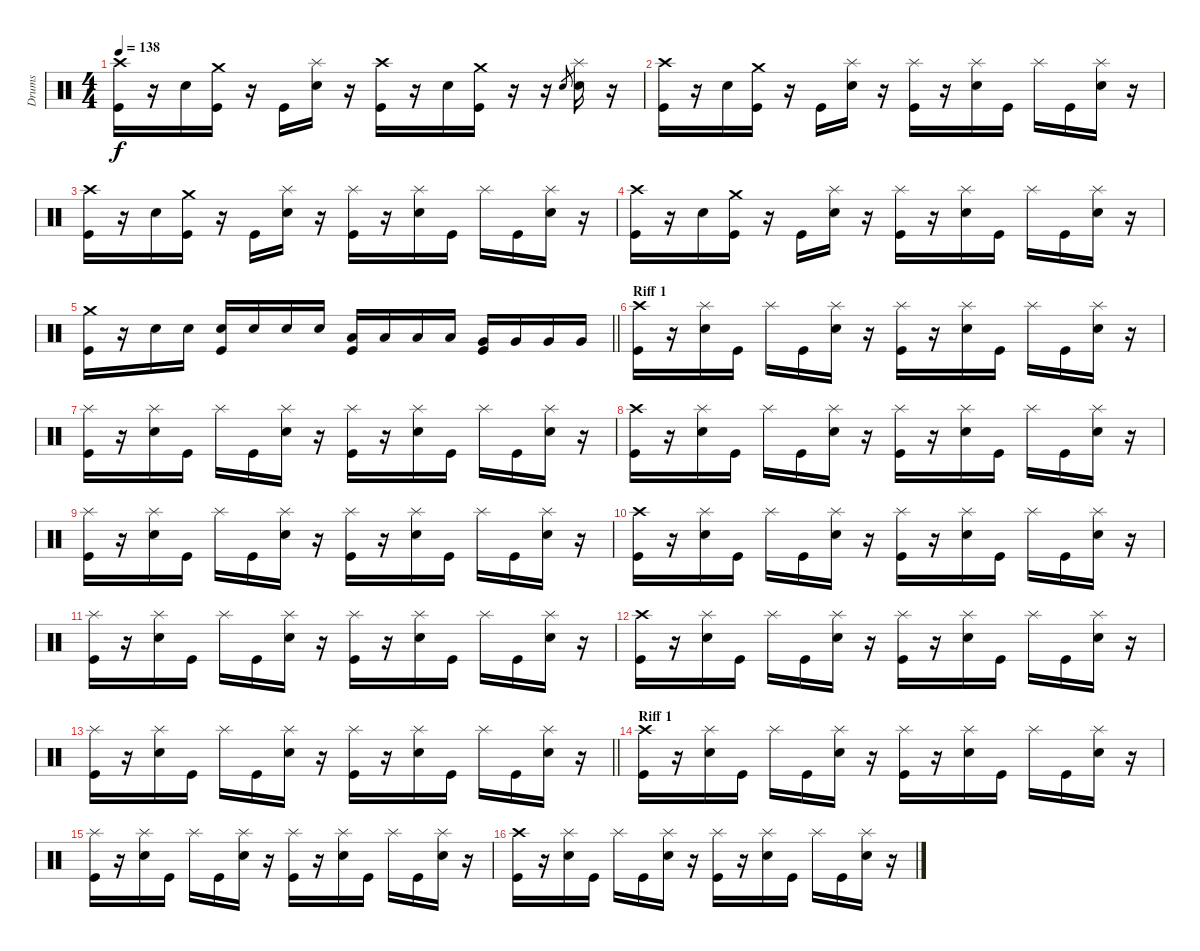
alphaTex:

\track ("Drums" "Drums") {instrument percussion}
\staff {score}
\articulation defaults
\ts (4 4)
\tempo 138
\clef neutral
\ks c
("Crash high (hit)" "Kick (hit)").16{dy f} r.16 "Electric Snare (hit)".16 ("Crash medium (hit)" "Kick (hit)").16 r.16 "Kick (hit)".16 ("Splash (hit)" "Electric Snare (hit)").16 r.16 ("Crash high (hit)" "Kick (hit)").16 r.16 "Electric Snare (hit)".16 ("Crash medium (hit)" "Kick (hit)").16 r.16 r.16 "Electric Snare (hit)".8{gr} ("Splash (hit)" "Electric Snare (hit)").16 r.16 |
("Crash high (hit)" "Kick (hit)").16 r.16 "Electric Snare (hit)".16 ("Crash medium (hit)" "Kick (hit)").16 r.16 "Kick (hit)".16 ("Splash (hit)" "Electric Snare (hit)").16 r.16 ("Splash (hit)" "Kick (hit)").16 r.16 ("Splash (hit)" "Electric Snare (hit)").16 "Kick (hit)".16 "Splash (hit)".16 "Kick (hit)".16 ("Splash (hit)" "Electric Snare (hit)").16 r.16 |
("Crash high (hit)" "Kick (hit)").16 r.16 "Electric Snare (hit)".16 ("Crash medium (hit)" "Kick (hit)").16 r.16 "Kick (hit)".16 ("Splash (hit)" "Electric Snare (hit)").16 r.16 ("Splash (hit)" "Kick (hit)").16 r.16 ("Splash (hit)" "Electric Snare (hit)").16 "Kick (hit)".16 "Splash (hit)".16 "Kick (hit)".16 ("Splash (hit)" "Electric Snare (hit)").16 r.16 |
("Crash high (hit)" "Kick (hit)").16 r.16 "Electric Snare (hit)".16 ("Crash medium (hit)" "Kick (hit)").16 r.16 "Kick (hit)".16 ("Splash (hit)" "Electric Snare (hit)").16 r.16 ("Splash (hit)" "Kick (hit)").16 r.16 ("Splash (hit)" "Electric Snare (hit)").16 "Kick (hit)".16 "Splash (hit)".16 "Kick (hit)".16 ("Splash (hit)" "Electric Snare (hit)").16 r.16 |
\barLineRight lightlight
("Crash medium (hit)" "Kick (hit)").16 r.16 "Electric Snare (hit)".16 "Electric Snare (hit)".16 ("Electric Snare (hit)" "Kick (hit)").16 "Electric Snare (hit)".16 "Electric Snare (hit)".16 "Electric Snare (hit)".16 ("Low Tom (hit)" "Kick (hit)").16 "Low Tom (hit)".16 "Low Tom (hit)".16 "Low Tom (hit)".16 ("Very Low Tom (hit)" "Kick (hit)").16 "Very Low Tom (hit)".16 "Very Low Tom (hit)".16 "Very Low Tom (hit)".16 |
\section ("" "Riff 1")
("Crash high (hit)" "Kick (hit)").16 r.16 ("Splash (hit)" "Electric Snare (hit)").16 "Kick (hit)".16 "Splash (hit)".16 "Kick (hit)".16 ("Splash (hit)" "Electric Snare (hit)").16 r.16 ("Splash (hit)" "Kick (hit)").16 r.16 ("Splash (hit)" "Electric Snare (hit)").16 "Kick (hit)".16 "Splash (hit)".16 "Kick (hit)".16 ("Splash (hit)" "Electric Snare (hit)").16 r.16 |
("Splash (hit)" "Kick (hit)").16 r.16 ("Splash (hit)" "Electric Snare (hit)").16 "Kick (hit)".16 "Splash (hit)".16 "Kick (hit)".16 ("Splash (hit)" "Electric Snare (hit)").16 r.16 ("Splash (hit)" "Kick (hit)").16 r.16 ("Splash (hit)" "Electric Snare (hit)").16 "Kick (hit)".16 "Splash (hit)".16 "Kick (hit)".16 ("Splash (hit)" "Electric Snare (hit)").16 r.16 |
("Crash high (hit)" "Kick (hit)").16 r.16 ("Splash (hit)" "Electric Snare (hit)").16 "Kick (hit)".16 "Splash (hit)".16 "Kick (hit)".16 ("Splash (hit)" "Electric Snare (hit)").16 r.16 ("Splash (hit)" "Kick (hit)").16 r.16 ("Splash (hit)" "Electric Snare (hit)").16 "Kick (hit)".16 "Splash (hit)".16 "Kick (hit)".16 ("Splash (hit)" "Electric Snare (hit)").16 r.16 |
("Splash (hit)" "Kick (hit)").16 r.16 ("Splash (hit)" "Electric Snare (hit)").16 "Kick (hit)".16 "Splash (hit)".16 "Kick (hit)".16 ("Splash (hit)" "Electric Snare (hit)").16 r.16 ("Splash (hit)" "Kick (hit)").16 r.16 ("Splash (hit)" "Electric Snare (hit)").16 "Kick (hit)".16 "Splash (hit)".16 "Kick (hit)".16 ("Splash (hit)" "Electric Snare (hit)").16 r.16 |
("Crash high (hit)" "Kick (hit)").16 r.16 ("Splash (hit)" "Electric Snare (hit)").16 "Kick (hit)".16 "Splash (hit)".16 "Kick (hit)".16 ("Splash (hit)" "Electric Snare (hit)").16 r.16 ("Splash (hit)" "Kick (hit)").16 r.16 ("Splash (hit)" "Electric Snare (hit)").16 "Kick (hit)".16 "Splash (hit)".16 "Kick (hit)".16 ("Splash (hit)" "Electric Snare (hit)").16 r.16 |
("Splash (hit)" "Kick (hit)").16 r.16 ("Splash (hit)" "Electric Snare (hit)").16 "Kick (hit)".16 "Splash (hit)".16 "Kick (hit)".16 ("Splash (hit)" "Electric Snare (hit)").16 r.16 ("Splash (hit)" "Kick (hit)").16 r.16 ("Splash (hit)" "Electric Snare (hit)").16 "Kick (hit)".16 "Splash (hit)".16 "Kick (hit)".16 ("Splash (hit)" "Electric Snare (hit)").16 r.16 |
("Crash high (hit)" "Kick (hit)").16 r.16 ("Splash (hit)" "Electric Snare (hit)").16 "Kick (hit)".16 "Splash (hit)".16 "Kick (hit)".16 ("Splash (hit)" "Electric Snare (hit)").16 r.16 ("Splash (hit)" "Kick (hit)").16 r.16 ("Splash (hit)" "Electric Snare (hit)").16 "Kick (hit)".16 "Splash (hit)".16 "Kick (hit)".16 ("Splash (hit)" "Electric Snare (hit)").16 r.16 |
\barLineRight lightlight
("Splash (hit)" "Kick (hit)").16 r.16 ("Splash (hit)" "Electric Snare (hit)").16 "Kick (hit)".16 "Splash (hit)".16 "Kick (hit)".16 ("Splash (hit)" "Electric Snare (hit)").16 r.16 ("Splash (hit)" "Kick (hit)").16 r.16 ("Splash (hit)" "Electric Snare (hit)").16 "Kick (hit)".16 "Splash (hit)".16 "Kick (hit)".16 ("Splash (hit)" "Electric Snare (hit)").16 r.16 |
\section ("" "Riff 1")
("Crash high (hit)" "Kick (hit)").16 r.16 ("Splash (hit)" "Electric Snare (hit)").16 "Kick (hit)".16 "Splash (hit)".16 "Kick (hit)".16 ("Splash (hit)" "Electric Snare (hit)").16 r.16 ("Splash (hit)" "Kick (hit)").16 r.16 ("Splash (hit)" "Electric Snare (hit)").16 "Kick (hit)".16 "Splash (hit)".16 "Kick (hit)".16 ("Splash (hit)" "Electric Snare (hit)").16 r.16 |
("Splash (hit)" "Kick (hit)").16 r.16 ("Splash (hit)" "Electric Snare (hit)").16 "Kick (hit)".16 "Splash (hit)".16 "Kick (hit)".16 ("Splash (hit)" "Electric Snare (hit)").16 r.16 ("Splash (hit)" "Kick (hit)").16 r.16 ("Splash (hit)" "Electric Snare (hit)").16 "Kick (hit)".16 "Splash (hit)".16 "Kick (hit)".16 ("Splash (hit)" "Electric Snare (hit)").16 r.16 |
("Crash high (hit)" "Kick (hit)").16 r.16 ("Splash (hit)" "Electric Snare (hit)").16 "Kick (hit)".16 "Splash (hit)".16 "Kick (hit)".16 ("Splash (hit)" "Electric Snare (hit)").16 r.16 ("Splash (hit)" "Kick (hit)").16 r.16 ("Splash (hit)" "Electric Snare (hit)").16 "Kick (hit)".16 "Splash (hit)".16 "Kick (hit)".16 ("Splash (hit)" "Electric Snare (hit)").16 r.16
